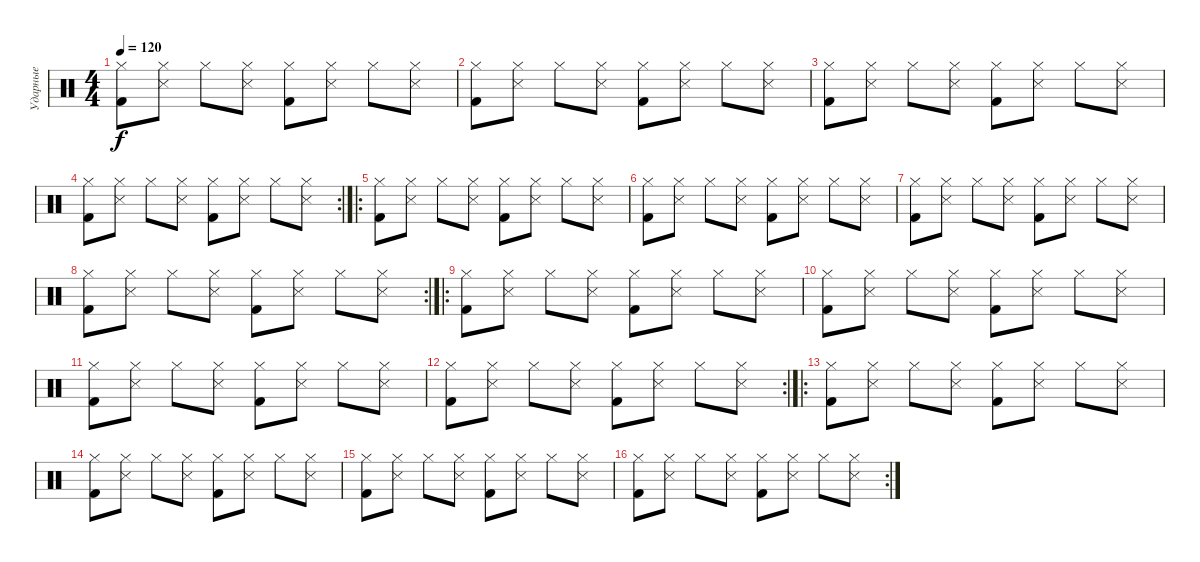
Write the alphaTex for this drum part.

\track ("Ударные" "Ударные") {instrument percussion}
\staff {score}
\articulation defaults
\ts (4 4)
\tempo 120
\clef neutral
\ks aminor
("Kick (hit) 2" "Hi-Hat (closed)").8{dy f} ("Snare (side stick) 3" "Hi-Hat (closed)").8 "Hi-Hat (closed)".8 ("Snare (side stick) 3" "Hi-Hat (closed)").8 ("Kick (hit) 2" "Hi-Hat (closed)").8 ("Snare (side stick) 3" "Hi-Hat (closed)").8 "Hi-Hat (closed)".8 ("Snare (side stick) 3" "Hi-Hat (closed)").8 |
("Kick (hit) 2" "Hi-Hat (closed)").8 ("Snare (side stick) 3" "Hi-Hat (closed)").8 "Hi-Hat (closed)".8 ("Snare (side stick) 3" "Hi-Hat (closed)").8 ("Kick (hit) 2" "Hi-Hat (closed)").8 ("Snare (side stick) 3" "Hi-Hat (closed)").8 "Hi-Hat (closed)".8 ("Snare (side stick) 3" "Hi-Hat (closed)").8 |
("Kick (hit) 2" "Hi-Hat (closed)").8 ("Snare (side stick) 3" "Hi-Hat (closed)").8 "Hi-Hat (closed)".8 ("Snare (side stick) 3" "Hi-Hat (closed)").8 ("Kick (hit) 2" "Hi-Hat (closed)").8 ("Snare (side stick) 3" "Hi-Hat (closed)").8 "Hi-Hat (closed)".8 ("Snare (side stick) 3" "Hi-Hat (closed)").8 |
\rc 2
("Kick (hit) 2" "Hi-Hat (closed)").8 ("Snare (side stick) 3" "Hi-Hat (closed)").8 "Hi-Hat (closed)".8 ("Snare (side stick) 3" "Hi-Hat (closed)").8 ("Kick (hit) 2" "Hi-Hat (closed)").8 ("Snare (side stick) 3" "Hi-Hat (closed)").8 "Hi-Hat (closed)".8 ("Snare (side stick) 3" "Hi-Hat (closed)").8 |
\ro
("Kick (hit) 2" "Hi-Hat (closed)").8 ("Snare (side stick) 3" "Hi-Hat (closed)").8 "Hi-Hat (closed)".8 ("Snare (side stick) 3" "Hi-Hat (closed)").8 ("Kick (hit) 2" "Hi-Hat (closed)").8 ("Snare (side stick) 3" "Hi-Hat (closed)").8 "Hi-Hat (closed)".8 ("Snare (side stick) 3" "Hi-Hat (closed)").8 |
("Kick (hit) 2" "Hi-Hat (closed)").8 ("Snare (side stick) 3" "Hi-Hat (closed)").8 "Hi-Hat (closed)".8 ("Snare (side stick) 3" "Hi-Hat (closed)").8 ("Kick (hit) 2" "Hi-Hat (closed)").8 ("Snare (side stick) 3" "Hi-Hat (closed)").8 "Hi-Hat (closed)".8 ("Snare (side stick) 3" "Hi-Hat (closed)").8 |
("Kick (hit) 2" "Hi-Hat (closed)").8 ("Snare (side stick) 3" "Hi-Hat (closed)").8 "Hi-Hat (closed)".8 ("Snare (side stick) 3" "Hi-Hat (closed)").8 ("Kick (hit) 2" "Hi-Hat (closed)").8 ("Snare (side stick) 3" "Hi-Hat (closed)").8 "Hi-Hat (closed)".8 ("Snare (side stick) 3" "Hi-Hat (closed)").8 |
\rc 2
("Kick (hit) 2" "Hi-Hat (closed)").8 ("Snare (side stick) 3" "Hi-Hat (closed)").8 "Hi-Hat (closed)".8 ("Snare (side stick) 3" "Hi-Hat (closed)").8 ("Kick (hit) 2" "Hi-Hat (closed)").8 ("Snare (side stick) 3" "Hi-Hat (closed)").8 "Hi-Hat (closed)".8 ("Snare (side stick) 3" "Hi-Hat (closed)").8 |
\ro
("Kick (hit) 2" "Hi-Hat (closed)").8 ("Snare (side stick) 3" "Hi-Hat (closed)").8 "Hi-Hat (closed)".8 ("Snare (side stick) 3" "Hi-Hat (closed)").8 ("Kick (hit) 2" "Hi-Hat (closed)").8 ("Snare (side stick) 3" "Hi-Hat (closed)").8 "Hi-Hat (closed)".8 ("Snare (side stick) 3" "Hi-Hat (closed)").8 |
("Kick (hit) 2" "Hi-Hat (closed)").8 ("Snare (side stick) 3" "Hi-Hat (closed)").8 "Hi-Hat (closed)".8 ("Snare (side stick) 3" "Hi-Hat (closed)").8 ("Kick (hit) 2" "Hi-Hat (closed)").8 ("Snare (side stick) 3" "Hi-Hat (closed)").8 "Hi-Hat (closed)".8 ("Snare (side stick) 3" "Hi-Hat (closed)").8 |
("Kick (hit) 2" "Hi-Hat (closed)").8 ("Snare (side stick) 3" "Hi-Hat (closed)").8 "Hi-Hat (closed)".8 ("Snare (side stick) 3" "Hi-Hat (closed)").8 ("Kick (hit) 2" "Hi-Hat (closed)").8 ("Snare (side stick) 3" "Hi-Hat (closed)").8 "Hi-Hat (closed)".8 ("Snare (side stick) 3" "Hi-Hat (closed)").8 |
\rc 2
("Kick (hit) 2" "Hi-Hat (closed)").8 ("Snare (side stick) 3" "Hi-Hat (closed)").8 "Hi-Hat (closed)".8 ("Snare (side stick) 3" "Hi-Hat (closed)").8 ("Kick (hit) 2" "Hi-Hat (closed)").8 ("Snare (side stick) 3" "Hi-Hat (closed)").8 "Hi-Hat (closed)".8 ("Snare (side stick) 3" "Hi-Hat (closed)").8 |
\ro
("Kick (hit) 2" "Hi-Hat (closed)").8 ("Snare (side stick) 3" "Hi-Hat (closed)").8 "Hi-Hat (closed)".8 ("Snare (side stick) 3" "Hi-Hat (closed)").8 ("Kick (hit) 2" "Hi-Hat (closed)").8 ("Snare (side stick) 3" "Hi-Hat (closed)").8 "Hi-Hat (closed)".8 ("Snare (side stick) 3" "Hi-Hat (closed)").8 |
("Kick (hit) 2" "Hi-Hat (closed)").8 ("Snare (side stick) 3" "Hi-Hat (closed)").8 "Hi-Hat (closed)".8 ("Snare (side stick) 3" "Hi-Hat (closed)").8 ("Kick (hit) 2" "Hi-Hat (closed)").8 ("Snare (side stick) 3" "Hi-Hat (closed)").8 "Hi-Hat (closed)".8 ("Snare (side stick) 3" "Hi-Hat (closed)").8 |
("Kick (hit) 2" "Hi-Hat (closed)").8 ("Snare (side stick) 3" "Hi-Hat (closed)").8 "Hi-Hat (closed)".8 ("Snare (side stick) 3" "Hi-Hat (closed)").8 ("Kick (hit) 2" "Hi-Hat (closed)").8 ("Snare (side stick) 3" "Hi-Hat (closed)").8 "Hi-Hat (closed)".8 ("Snare (side stick) 3" "Hi-Hat (closed)").8 |
\rc 2
("Kick (hit) 2" "Hi-Hat (closed)").8 ("Snare (side stick) 3" "Hi-Hat (closed)").8 "Hi-Hat (closed)".8 ("Snare (side stick) 3" "Hi-Hat (closed)").8 ("Kick (hit) 2" "Hi-Hat (closed)").8 ("Snare (side stick) 3" "Hi-Hat (closed)").8 "Hi-Hat (closed)".8 ("Snare (side stick) 3" "Hi-Hat (closed)").8
